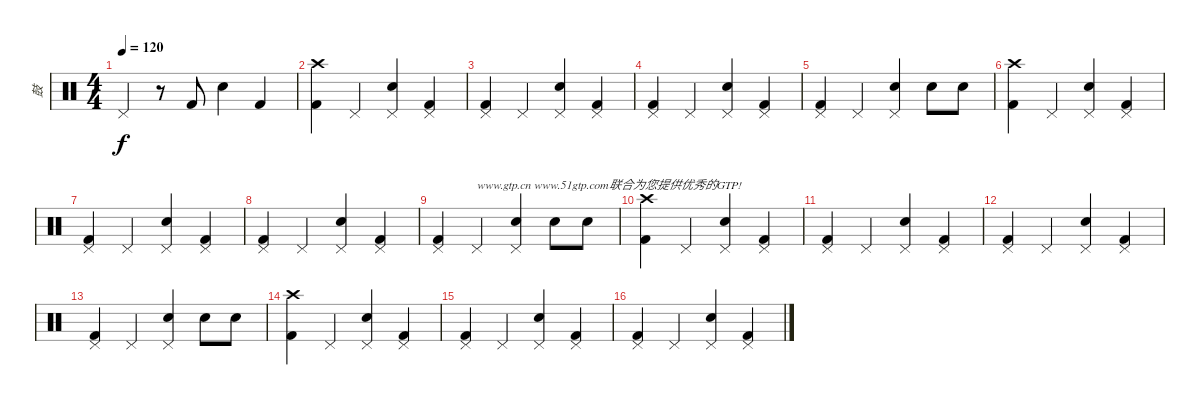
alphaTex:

\track ("鼓" "鼓") {instrument percussion}
\staff {score}
\articulation defaults
\ts (4 4)
\tempo 120
\clef neutral
\ks c "Pedal Hi-Hat (hit)".4{dy f}
r.8 "Kick (hit) 2".8 "Electric Snare (hit)".4 "Kick (hit) 2".4 |
("Crash high (hit)" "Kick (hit) 2").4 "Pedal Hi-Hat (hit)".4 ("Pedal Hi-Hat (hit)" "Electric Snare (hit)").4 ("Pedal Hi-Hat (hit)" "Kick (hit) 2").4 |
("Pedal Hi-Hat (hit)" "Kick (hit) 2").4 "Pedal Hi-Hat (hit)".4 ("Pedal Hi-Hat (hit)" "Electric Snare (hit)").4 ("Pedal Hi-Hat (hit)" "Kick (hit) 2").4 |
("Pedal Hi-Hat (hit)" "Kick (hit) 2").4 "Pedal Hi-Hat (hit)".4 ("Pedal Hi-Hat (hit)" "Electric Snare (hit)").4 ("Pedal Hi-Hat (hit)" "Kick (hit) 2").4 |
("Pedal Hi-Hat (hit)" "Kick (hit) 2").4 "Pedal Hi-Hat (hit)".4 ("Pedal Hi-Hat (hit)" "Electric Snare (hit)").4 "Electric Snare (hit)".8 "Electric Snare (hit)".8 |
("Crash high (hit)" "Kick (hit) 2").4 "Pedal Hi-Hat (hit)".4 ("Pedal Hi-Hat (hit)" "Electric Snare (hit)").4 ("Pedal Hi-Hat (hit)" "Kick (hit) 2").4 |
("Pedal Hi-Hat (hit)" "Kick (hit) 2").4 "Pedal Hi-Hat (hit)".4 ("Pedal Hi-Hat (hit)" "Electric Snare (hit)").4 ("Pedal Hi-Hat (hit)" "Kick (hit) 2").4 |
("Pedal Hi-Hat (hit)" "Kick (hit) 2").4 "Pedal Hi-Hat (hit)".4 ("Pedal Hi-Hat (hit)" "Electric Snare (hit)").4 ("Pedal Hi-Hat (hit)" "Kick (hit) 2").4 |
("Pedal Hi-Hat (hit)" "Kick (hit) 2").4 "Pedal Hi-Hat (hit)".4{txt "www.gtp.cn www.51gtp.com联合为您提供优秀的GTP!"} ("Pedal Hi-Hat (hit)" "Electric Snare (hit)").4 "Electric Snare (hit)".8 "Electric Snare (hit)".8 |
("Crash high (hit)" "Kick (hit) 2").4 "Pedal Hi-Hat (hit)".4 ("Pedal Hi-Hat (hit)" "Electric Snare (hit)").4 ("Pedal Hi-Hat (hit)" "Kick (hit) 2").4 |
("Pedal Hi-Hat (hit)" "Kick (hit) 2").4 "Pedal Hi-Hat (hit)".4 ("Pedal Hi-Hat (hit)" "Electric Snare (hit)").4 ("Pedal Hi-Hat (hit)" "Kick (hit) 2").4 |
("Pedal Hi-Hat (hit)" "Kick (hit) 2").4 "Pedal Hi-Hat (hit)".4 ("Pedal Hi-Hat (hit)" "Electric Snare (hit)").4 ("Pedal Hi-Hat (hit)" "Kick (hit) 2").4 |
("Pedal Hi-Hat (hit)" "Kick (hit) 2").4 "Pedal Hi-Hat (hit)".4 ("Pedal Hi-Hat (hit)" "Electric Snare (hit)").4 "Electric Snare (hit)".8 "Electric Snare (hit)".8 |
("Crash high (hit)" "Kick (hit) 2").4 "Pedal Hi-Hat (hit)".4 ("Pedal Hi-Hat (hit)" "Electric Snare (hit)").4 ("Pedal Hi-Hat (hit)" "Kick (hit) 2").4 |
("Pedal Hi-Hat (hit)" "Kick (hit) 2").4 "Pedal Hi-Hat (hit)".4 ("Pedal Hi-Hat (hit)" "Electric Snare (hit)").4 ("Pedal Hi-Hat (hit)" "Kick (hit) 2").4 |
("Pedal Hi-Hat (hit)" "Kick (hit) 2").4 "Pedal Hi-Hat (hit)".4 ("Pedal Hi-Hat (hit)" "Electric Snare (hit)").4 ("Pedal Hi-Hat (hit)" "Kick (hit) 2").4
